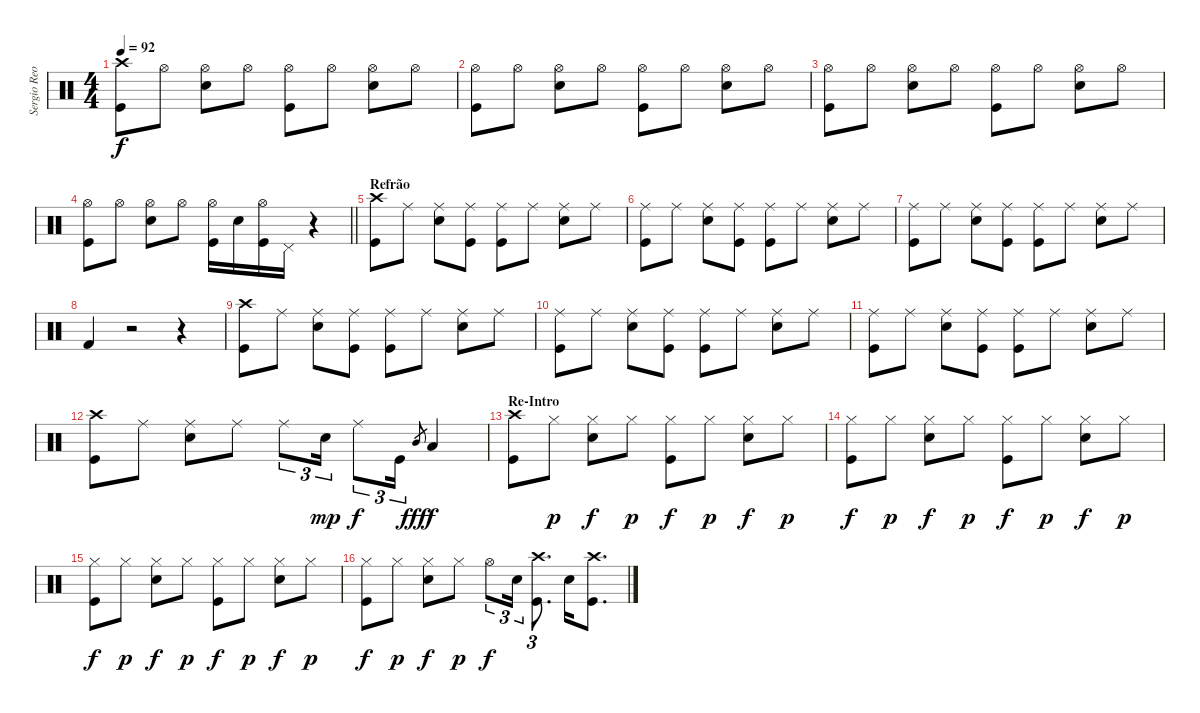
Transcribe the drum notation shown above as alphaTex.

\track ("Sergio Reoli" "Sergio Reo") {instrument percussion}
\staff {score}
\articulation defaults
\ts (4 4)
\tempo 92
\clef neutral
\ks c
("Crash high (hit)" "Kick (hit)").8{dy f} "Hi-Hat (open)".8 ("Hi-Hat (open)" "Electric Snare (hit)").8 "Hi-Hat (open)".8 ("Hi-Hat (open)" "Kick (hit)").8 "Hi-Hat (open)".8 ("Hi-Hat (open)" "Electric Snare (hit)").8 "Hi-Hat (open)".8 |
("Hi-Hat (open)" "Kick (hit)").8 "Hi-Hat (open)".8 ("Hi-Hat (open)" "Electric Snare (hit)").8 "Hi-Hat (open)".8 ("Hi-Hat (open)" "Kick (hit)").8 "Hi-Hat (open)".8 ("Hi-Hat (open)" "Electric Snare (hit)").8 "Hi-Hat (open)".8 |
("Hi-Hat (open)" "Kick (hit)").8 "Hi-Hat (open)".8 ("Hi-Hat (open)" "Electric Snare (hit)").8 "Hi-Hat (open)".8 ("Hi-Hat (open)" "Kick (hit)").8 "Hi-Hat (open)".8 ("Hi-Hat (open)" "Electric Snare (hit)").8 "Hi-Hat (open)".8 |
\barLineRight lightlight
("Hi-Hat (open)" "Kick (hit)").8 "Hi-Hat (open)".8 ("Hi-Hat (open)" "Electric Snare (hit)").8 "Hi-Hat (open)".8 ("Hi-Hat (open)" "Kick (hit)").16 "Electric Snare (hit)".16 ("Hi-Hat (open)" "Kick (hit)").16 "Pedal Hi-Hat (hit)".16 r.4 |
\section ("" "Refrão")
("Crash high (hit)" "Kick (hit)").8 "Ride (middle)".8 ("Ride (middle)" "Electric Snare (hit)").8 ("Ride (middle)" "Kick (hit)").8 ("Ride (middle)" "Kick (hit)").8 "Ride (middle)".8 ("Ride (middle)" "Electric Snare (hit)").8 "Ride (middle)".8 |
("Ride (middle)" "Kick (hit)").8 "Ride (middle)".8 ("Ride (middle)" "Electric Snare (hit)").8 ("Ride (middle)" "Kick (hit)").8 ("Ride (middle)" "Kick (hit)").8 "Ride (middle)".8 ("Ride (middle)" "Electric Snare (hit)").8 "Ride (middle)".8 |
("Ride (middle)" "Kick (hit)").8 "Ride (middle)".8 ("Ride (middle)" "Electric Snare (hit)").8 ("Ride (middle)" "Kick (hit)").8 ("Ride (middle)" "Kick (hit)").8 "Ride (middle)".8 ("Ride (middle)" "Electric Snare (hit)").8 "Ride (middle)".8 |
"Kick (hit) 2".4 r.2 r.4 |
("Crash high (hit)" "Kick (hit)").8 "Ride (middle)".8 ("Ride (middle)" "Electric Snare (hit)").8 ("Ride (middle)" "Kick (hit)").8 ("Ride (middle)" "Kick (hit)").8 "Ride (middle)".8 ("Ride (middle)" "Electric Snare (hit)").8 "Ride (middle)".8 |
("Ride (middle)" "Kick (hit)").8 "Ride (middle)".8 ("Ride (middle)" "Electric Snare (hit)").8 ("Ride (middle)" "Kick (hit)").8 ("Ride (middle)" "Kick (hit)").8 "Ride (middle)".8 ("Ride (middle)" "Electric Snare (hit)").8 "Ride (middle)".8 |
("Ride (middle)" "Kick (hit)").8 "Ride (middle)".8 ("Ride (middle)" "Electric Snare (hit)").8 ("Ride (middle)" "Kick (hit)").8 ("Ride (middle)" "Kick (hit)").8 "Ride (middle)".8 ("Ride (middle)" "Electric Snare (hit)").8 "Ride (middle)".8 |
("Crash high (hit)" "Kick (hit)").8 "Ride (middle)".8 ("Ride (middle)" "Electric Snare (hit)").8 "Ride (middle)".8 "Ride (middle)".8{tu (3 2)} "Electric Snare (hit)".16{tu (3 2) dy mp} "Ride (middle)".8{tu (3 2) dy f} "Kick (hit)".16{tu (3 2)} "Mid Tom (hit)".8{gr dy fff} "Low Tom (hit)".4{dy f} |
\section ("" "Re-Intro")
("Crash high (hit)" "Kick (hit)").8 "Hi-Hat (closed)".8{dy p} ("Hi-Hat (closed)" "Electric Snare (hit)").8{dy f} "Hi-Hat (closed)".8{dy p} ("Hi-Hat (closed)" "Kick (hit)").8{dy f} "Hi-Hat (closed)".8{dy p} ("Hi-Hat (closed)" "Electric Snare (hit)").8{dy f} "Hi-Hat (closed)".8{dy p} |
("Hi-Hat (closed)" "Kick (hit)").8{dy f} "Hi-Hat (closed)".8{dy p} ("Hi-Hat (closed)" "Electric Snare (hit)").8{dy f} "Hi-Hat (closed)".8{dy p} ("Hi-Hat (closed)" "Kick (hit)").8{dy f} "Hi-Hat (closed)".8{dy p} ("Hi-Hat (closed)" "Electric Snare (hit)").8{dy f} "Hi-Hat (closed)".8{dy p} |
("Hi-Hat (closed)" "Kick (hit)").8{dy f} "Hi-Hat (closed)".8{dy p} ("Hi-Hat (closed)" "Electric Snare (hit)").8{dy f} "Hi-Hat (closed)".8{dy p} ("Hi-Hat (closed)" "Kick (hit)").8{dy f} "Hi-Hat (closed)".8{dy p} ("Hi-Hat (closed)" "Electric Snare (hit)").8{dy f} "Hi-Hat (closed)".8{dy p} |
("Hi-Hat (closed)" "Kick (hit)").8{dy f} "Hi-Hat (closed)".8{dy p} ("Hi-Hat (closed)" "Electric Snare (hit)").8{dy f} "Hi-Hat (closed)".8{dy p} "Hi-Hat (open)".8{tu (3 2) dy f} "Electric Snare (hit)".16{tu (3 2)} ("Crash high (hit)" "Kick (hit)").8{d tu (3 2)} "Electric Snare (hit)".16 ("Crash high (hit)" "Kick (hit)").8{d}
